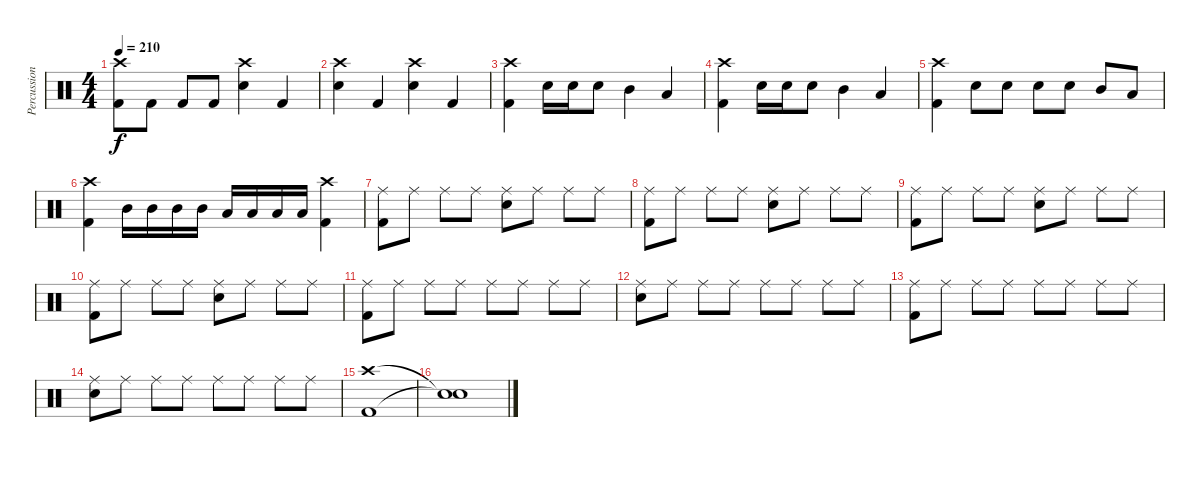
\track ("Percussion" "Percussion") {instrument percussion}
\staff {score}
\articulation defaults
\ts (4 4)
\tempo 210
\clef neutral
\ks c
("Crash high (hit)" "Kick (hit) 2").8{dy f} "Kick (hit) 2".8 "Kick (hit) 2".8 "Kick (hit) 2".8 ("Crash high (hit)" "Electric Snare (hit)").4 "Kick (hit) 2".4 |
("Crash high (hit)" "Electric Snare (hit)").4 "Kick (hit) 2".4 ("Crash high (hit)" "Electric Snare (hit)").4 "Kick (hit) 2".4 |
("Crash high (hit)" "Kick (hit) 2").4 "Electric Snare (hit)".16 "Electric Snare (hit)".16 "Electric Snare (hit)".8 "Mid Tom (hit)".4 "Low Tom (hit)".4 |
("Crash high (hit)" "Kick (hit) 2").4 "Electric Snare (hit)".16 "Electric Snare (hit)".16 "Electric Snare (hit)".8 "Mid Tom (hit)".4 "Low Tom (hit)".4 |
("Crash high (hit)" "Kick (hit) 2").4 "Electric Snare (hit)".8 "Electric Snare (hit)".8 "Electric Snare (hit)".8 "Electric Snare (hit)".8 "Mid Tom (hit)".8 "Low Tom (hit)".8 |
("Crash high (hit)" "Kick (hit) 2").4 "Mid Tom (hit)".16 "Mid Tom (hit)".16 "Mid Tom (hit)".16 "Mid Tom (hit)".16 "Low Tom (hit)".16 "Low Tom (hit)".16 "Low Tom (hit)".16 "Low Tom (hit)".16 ("Crash high (hit)" "Kick (hit) 2").4 |
("Ride (middle)" "Kick (hit) 2").8 "Ride (middle)".8 "Ride (middle)".8 "Ride (middle)".8 ("Ride (middle)" "Electric Snare (hit)").8 "Ride (middle)".8 "Ride (middle)".8 "Ride (middle)".8 |
("Ride (middle)" "Kick (hit) 2").8 "Ride (middle)".8 "Ride (middle)".8 "Ride (middle)".8 ("Ride (middle)" "Electric Snare (hit)").8 "Ride (middle)".8 "Ride (middle)".8 "Ride (middle)".8 |
("Ride (middle)" "Kick (hit) 2").8 "Ride (middle)".8 "Ride (middle)".8 "Ride (middle)".8 ("Ride (middle)" "Electric Snare (hit)").8 "Ride (middle)".8 "Ride (middle)".8 "Ride (middle)".8 |
("Ride (middle)" "Kick (hit) 2").8 "Ride (middle)".8 "Ride (middle)".8 "Ride (middle)".8 ("Ride (middle)" "Electric Snare (hit)").8 "Ride (middle)".8 "Ride (middle)".8 "Ride (middle)".8 |
("Ride (middle)" "Kick (hit) 2").8 "Ride (middle)".8 "Ride (middle)".8 "Ride (middle)".8 "Ride (middle)".8 "Ride (middle)".8 "Ride (middle)".8 "Ride (middle)".8 |
("Ride (middle)" "Electric Snare (hit)").8 "Ride (middle)".8 "Ride (middle)".8 "Ride (middle)".8 "Ride (middle)".8 "Ride (middle)".8 "Ride (middle)".8 "Ride (middle)".8 |
("Ride (middle)" "Kick (hit) 2").8 "Ride (middle)".8 "Ride (middle)".8 "Ride (middle)".8 "Ride (middle)".8 "Ride (middle)".8 "Ride (middle)".8 "Ride (middle)".8 |
("Ride (middle)" "Electric Snare (hit)").8 "Ride (middle)".8 "Ride (middle)".8 "Ride (middle)".8 "Ride (middle)".8 "Ride (middle)".8 "Ride (middle)".8 "Ride (middle)".8 |
("Crash high (hit)" "Kick (hit) 2").1 |
("Snare (hit)"{t} "Snare (hit)"{t}).1
